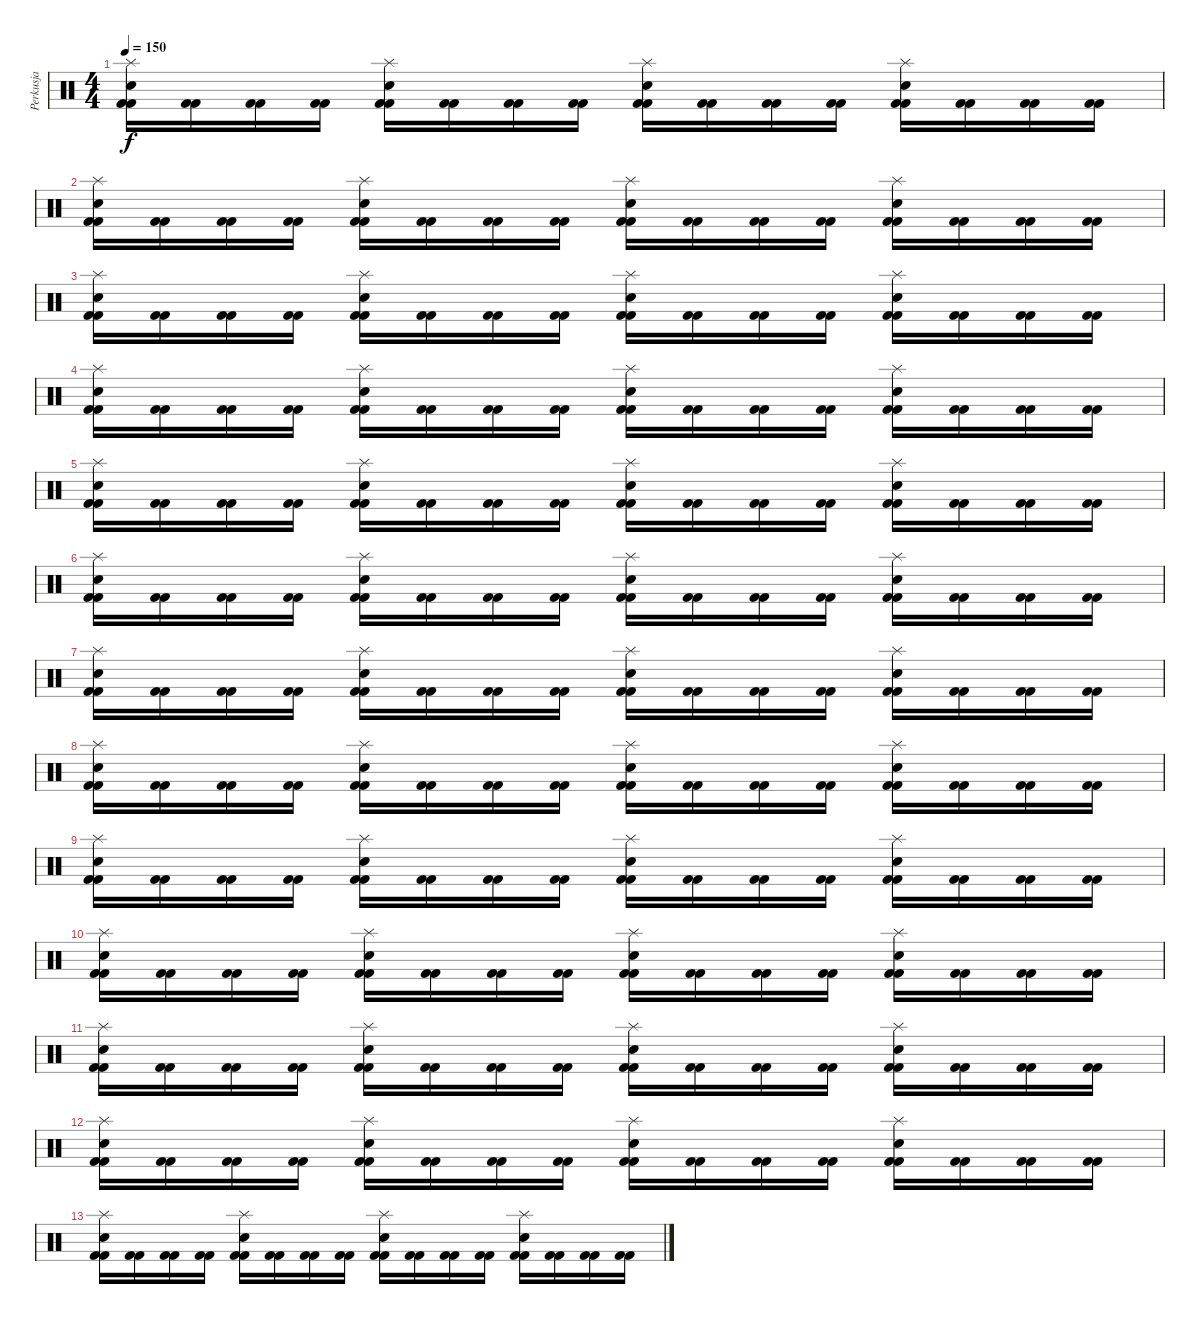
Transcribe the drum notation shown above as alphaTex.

\track ("Perkusja" "Perkusja") {instrument percussion}
\staff {score}
\articulation defaults
\ts (4 4)
\tempo 150
\clef neutral
\ks c
("Splash (hit)" "Snare (hit) 2" "Kick (hit) 2" "Kick (hit) 2").16{dy f} ("Kick (hit) 2" "Kick (hit) 2").16 ("Kick (hit) 2" "Kick (hit) 2").16 ("Kick (hit) 2" "Kick (hit) 2").16 ("Splash (hit)" "Electric Snare (hit)" "Kick (hit) 2" "Kick (hit) 2").16 ("Kick (hit) 2" "Kick (hit) 2").16 ("Kick (hit) 2" "Kick (hit) 2").16 ("Kick (hit) 2" "Kick (hit) 2").16 ("Splash (hit)" "Snare (hit) 2" "Kick (hit) 2" "Kick (hit) 2").16 ("Kick (hit) 2" "Kick (hit) 2").16 ("Kick (hit) 2" "Kick (hit) 2").16 ("Kick (hit) 2" "Kick (hit) 2").16 ("Splash (hit)" "Electric Snare (hit)" "Kick (hit) 2" "Kick (hit) 2").16 ("Kick (hit) 2" "Kick (hit) 2").16 ("Kick (hit) 2" "Kick (hit) 2").16 ("Kick (hit) 2" "Kick (hit) 2").16 |
("Splash (hit)" "Snare (hit) 2" "Kick (hit) 2" "Kick (hit) 2").16 ("Kick (hit) 2" "Kick (hit) 2").16 ("Kick (hit) 2" "Kick (hit) 2").16 ("Kick (hit) 2" "Kick (hit) 2").16 ("Splash (hit)" "Electric Snare (hit)" "Kick (hit) 2" "Kick (hit) 2").16 ("Kick (hit) 2" "Kick (hit) 2").16 ("Kick (hit) 2" "Kick (hit) 2").16 ("Kick (hit) 2" "Kick (hit) 2").16 ("Splash (hit)" "Snare (hit) 2" "Kick (hit) 2" "Kick (hit) 2").16 ("Kick (hit) 2" "Kick (hit) 2").16 ("Kick (hit) 2" "Kick (hit) 2").16 ("Kick (hit) 2" "Kick (hit) 2").16 ("Splash (hit)" "Electric Snare (hit)" "Kick (hit) 2" "Kick (hit) 2").16 ("Kick (hit) 2" "Kick (hit) 2").16 ("Kick (hit) 2" "Kick (hit) 2").16 ("Kick (hit) 2" "Kick (hit) 2").16 |
("Splash (hit)" "Snare (hit) 2" "Kick (hit) 2" "Kick (hit) 2").16 ("Kick (hit) 2" "Kick (hit) 2").16 ("Kick (hit) 2" "Kick (hit) 2").16 ("Kick (hit) 2" "Kick (hit) 2").16 ("Splash (hit)" "Electric Snare (hit)" "Kick (hit) 2" "Kick (hit) 2").16 ("Kick (hit) 2" "Kick (hit) 2").16 ("Kick (hit) 2" "Kick (hit) 2").16 ("Kick (hit) 2" "Kick (hit) 2").16 ("Splash (hit)" "Snare (hit) 2" "Kick (hit) 2" "Kick (hit) 2").16 ("Kick (hit) 2" "Kick (hit) 2").16 ("Kick (hit) 2" "Kick (hit) 2").16 ("Kick (hit) 2" "Kick (hit) 2").16 ("Splash (hit)" "Electric Snare (hit)" "Kick (hit) 2" "Kick (hit) 2").16 ("Kick (hit) 2" "Kick (hit) 2").16 ("Kick (hit) 2" "Kick (hit) 2").16 ("Kick (hit) 2" "Kick (hit) 2").16 |
("Splash (hit)" "Snare (hit) 2" "Kick (hit) 2" "Kick (hit) 2").16 ("Kick (hit) 2" "Kick (hit) 2").16 ("Kick (hit) 2" "Kick (hit) 2").16 ("Kick (hit) 2" "Kick (hit) 2").16 ("Splash (hit)" "Electric Snare (hit)" "Kick (hit) 2" "Kick (hit) 2").16 ("Kick (hit) 2" "Kick (hit) 2").16 ("Kick (hit) 2" "Kick (hit) 2").16 ("Kick (hit) 2" "Kick (hit) 2").16 ("Splash (hit)" "Snare (hit) 2" "Kick (hit) 2" "Kick (hit) 2").16 ("Kick (hit) 2" "Kick (hit) 2").16 ("Kick (hit) 2" "Kick (hit) 2").16 ("Kick (hit) 2" "Kick (hit) 2").16 ("Splash (hit)" "Electric Snare (hit)" "Kick (hit) 2" "Kick (hit) 2").16 ("Kick (hit) 2" "Kick (hit) 2").16 ("Kick (hit) 2" "Kick (hit) 2").16 ("Kick (hit) 2" "Kick (hit) 2").16 |
("Splash (hit)" "Snare (hit) 2" "Kick (hit) 2" "Kick (hit) 2").16 ("Kick (hit) 2" "Kick (hit) 2").16 ("Kick (hit) 2" "Kick (hit) 2").16 ("Kick (hit) 2" "Kick (hit) 2").16 ("Splash (hit)" "Electric Snare (hit)" "Kick (hit) 2" "Kick (hit) 2").16 ("Kick (hit) 2" "Kick (hit) 2").16 ("Kick (hit) 2" "Kick (hit) 2").16 ("Kick (hit) 2" "Kick (hit) 2").16 ("Splash (hit)" "Snare (hit) 2" "Kick (hit) 2" "Kick (hit) 2").16 ("Kick (hit) 2" "Kick (hit) 2").16 ("Kick (hit) 2" "Kick (hit) 2").16 ("Kick (hit) 2" "Kick (hit) 2").16 ("Splash (hit)" "Electric Snare (hit)" "Kick (hit) 2" "Kick (hit) 2").16 ("Kick (hit) 2" "Kick (hit) 2").16 ("Kick (hit) 2" "Kick (hit) 2").16 ("Kick (hit) 2" "Kick (hit) 2").16 |
("Splash (hit)" "Snare (hit) 2" "Kick (hit) 2" "Kick (hit) 2").16 ("Kick (hit) 2" "Kick (hit) 2").16 ("Kick (hit) 2" "Kick (hit) 2").16 ("Kick (hit) 2" "Kick (hit) 2").16 ("Splash (hit)" "Electric Snare (hit)" "Kick (hit) 2" "Kick (hit) 2").16 ("Kick (hit) 2" "Kick (hit) 2").16 ("Kick (hit) 2" "Kick (hit) 2").16 ("Kick (hit) 2" "Kick (hit) 2").16 ("Splash (hit)" "Snare (hit) 2" "Kick (hit) 2" "Kick (hit) 2").16 ("Kick (hit) 2" "Kick (hit) 2").16 ("Kick (hit) 2" "Kick (hit) 2").16 ("Kick (hit) 2" "Kick (hit) 2").16 ("Splash (hit)" "Electric Snare (hit)" "Kick (hit) 2" "Kick (hit) 2").16 ("Kick (hit) 2" "Kick (hit) 2").16 ("Kick (hit) 2" "Kick (hit) 2").16 ("Kick (hit) 2" "Kick (hit) 2").16 |
("Splash (hit)" "Snare (hit) 2" "Kick (hit) 2" "Kick (hit) 2").16 ("Kick (hit) 2" "Kick (hit) 2").16 ("Kick (hit) 2" "Kick (hit) 2").16 ("Kick (hit) 2" "Kick (hit) 2").16 ("Splash (hit)" "Electric Snare (hit)" "Kick (hit) 2" "Kick (hit) 2").16 ("Kick (hit) 2" "Kick (hit) 2").16 ("Kick (hit) 2" "Kick (hit) 2").16 ("Kick (hit) 2" "Kick (hit) 2").16 ("Splash (hit)" "Snare (hit) 2" "Kick (hit) 2" "Kick (hit) 2").16 ("Kick (hit) 2" "Kick (hit) 2").16 ("Kick (hit) 2" "Kick (hit) 2").16 ("Kick (hit) 2" "Kick (hit) 2").16 ("Splash (hit)" "Electric Snare (hit)" "Kick (hit) 2" "Kick (hit) 2").16 ("Kick (hit) 2" "Kick (hit) 2").16 ("Kick (hit) 2" "Kick (hit) 2").16 ("Kick (hit) 2" "Kick (hit) 2").16 |
("Splash (hit)" "Snare (hit) 2" "Kick (hit) 2" "Kick (hit) 2").16 ("Kick (hit) 2" "Kick (hit) 2").16 ("Kick (hit) 2" "Kick (hit) 2").16 ("Kick (hit) 2" "Kick (hit) 2").16 ("Splash (hit)" "Electric Snare (hit)" "Kick (hit) 2" "Kick (hit) 2").16 ("Kick (hit) 2" "Kick (hit) 2").16 ("Kick (hit) 2" "Kick (hit) 2").16 ("Kick (hit) 2" "Kick (hit) 2").16 ("Splash (hit)" "Snare (hit) 2" "Kick (hit) 2" "Kick (hit) 2").16 ("Kick (hit) 2" "Kick (hit) 2").16 ("Kick (hit) 2" "Kick (hit) 2").16 ("Kick (hit) 2" "Kick (hit) 2").16 ("Splash (hit)" "Electric Snare (hit)" "Kick (hit) 2" "Kick (hit) 2").16 ("Kick (hit) 2" "Kick (hit) 2").16 ("Kick (hit) 2" "Kick (hit) 2").16 ("Kick (hit) 2" "Kick (hit) 2").16 |
("Splash (hit)" "Snare (hit) 2" "Kick (hit) 2" "Kick (hit) 2").16 ("Kick (hit) 2" "Kick (hit) 2").16 ("Kick (hit) 2" "Kick (hit) 2").16 ("Kick (hit) 2" "Kick (hit) 2").16 ("Splash (hit)" "Electric Snare (hit)" "Kick (hit) 2" "Kick (hit) 2").16 ("Kick (hit) 2" "Kick (hit) 2").16 ("Kick (hit) 2" "Kick (hit) 2").16 ("Kick (hit) 2" "Kick (hit) 2").16 ("Splash (hit)" "Snare (hit) 2" "Kick (hit) 2" "Kick (hit) 2").16 ("Kick (hit) 2" "Kick (hit) 2").16 ("Kick (hit) 2" "Kick (hit) 2").16 ("Kick (hit) 2" "Kick (hit) 2").16 ("Splash (hit)" "Electric Snare (hit)" "Kick (hit) 2" "Kick (hit) 2").16 ("Kick (hit) 2" "Kick (hit) 2").16 ("Kick (hit) 2" "Kick (hit) 2").16 ("Kick (hit) 2" "Kick (hit) 2").16 |
("Splash (hit)" "Snare (hit) 2" "Kick (hit) 2" "Kick (hit) 2").16 ("Kick (hit) 2" "Kick (hit) 2").16 ("Kick (hit) 2" "Kick (hit) 2").16 ("Kick (hit) 2" "Kick (hit) 2").16 ("Splash (hit)" "Electric Snare (hit)" "Kick (hit) 2" "Kick (hit) 2").16 ("Kick (hit) 2" "Kick (hit) 2").16 ("Kick (hit) 2" "Kick (hit) 2").16 ("Kick (hit) 2" "Kick (hit) 2").16 ("Splash (hit)" "Snare (hit) 2" "Kick (hit) 2" "Kick (hit) 2").16 ("Kick (hit) 2" "Kick (hit) 2").16 ("Kick (hit) 2" "Kick (hit) 2").16 ("Kick (hit) 2" "Kick (hit) 2").16 ("Splash (hit)" "Electric Snare (hit)" "Kick (hit) 2" "Kick (hit) 2").16 ("Kick (hit) 2" "Kick (hit) 2").16 ("Kick (hit) 2" "Kick (hit) 2").16 ("Kick (hit) 2" "Kick (hit) 2").16 |
("Splash (hit)" "Snare (hit) 2" "Kick (hit) 2" "Kick (hit) 2").16 ("Kick (hit) 2" "Kick (hit) 2").16 ("Kick (hit) 2" "Kick (hit) 2").16 ("Kick (hit) 2" "Kick (hit) 2").16 ("Splash (hit)" "Electric Snare (hit)" "Kick (hit) 2" "Kick (hit) 2").16 ("Kick (hit) 2" "Kick (hit) 2").16 ("Kick (hit) 2" "Kick (hit) 2").16 ("Kick (hit) 2" "Kick (hit) 2").16 ("Splash (hit)" "Snare (hit) 2" "Kick (hit) 2" "Kick (hit) 2").16 ("Kick (hit) 2" "Kick (hit) 2").16 ("Kick (hit) 2" "Kick (hit) 2").16 ("Kick (hit) 2" "Kick (hit) 2").16 ("Splash (hit)" "Electric Snare (hit)" "Kick (hit) 2" "Kick (hit) 2").16 ("Kick (hit) 2" "Kick (hit) 2").16 ("Kick (hit) 2" "Kick (hit) 2").16 ("Kick (hit) 2" "Kick (hit) 2").16 |
("Splash (hit)" "Snare (hit) 2" "Kick (hit) 2" "Kick (hit) 2").16 ("Kick (hit) 2" "Kick (hit) 2").16 ("Kick (hit) 2" "Kick (hit) 2").16 ("Kick (hit) 2" "Kick (hit) 2").16 ("Splash (hit)" "Electric Snare (hit)" "Kick (hit) 2" "Kick (hit) 2").16 ("Kick (hit) 2" "Kick (hit) 2").16 ("Kick (hit) 2" "Kick (hit) 2").16 ("Kick (hit) 2" "Kick (hit) 2").16 ("Splash (hit)" "Snare (hit) 2" "Kick (hit) 2" "Kick (hit) 2").16 ("Kick (hit) 2" "Kick (hit) 2").16 ("Kick (hit) 2" "Kick (hit) 2").16 ("Kick (hit) 2" "Kick (hit) 2").16 ("Splash (hit)" "Electric Snare (hit)" "Kick (hit) 2" "Kick (hit) 2").16 ("Kick (hit) 2" "Kick (hit) 2").16 ("Kick (hit) 2" "Kick (hit) 2").16 ("Kick (hit) 2" "Kick (hit) 2").16 |
("Splash (hit)" "Snare (hit) 2" "Kick (hit) 2" "Kick (hit) 2").16 ("Kick (hit) 2" "Kick (hit) 2").16 ("Kick (hit) 2" "Kick (hit) 2").16 ("Kick (hit) 2" "Kick (hit) 2").16 ("Splash (hit)" "Electric Snare (hit)" "Kick (hit) 2" "Kick (hit) 2").16 ("Kick (hit) 2" "Kick (hit) 2").16 ("Kick (hit) 2" "Kick (hit) 2").16 ("Kick (hit) 2" "Kick (hit) 2").16 ("Splash (hit)" "Snare (hit) 2" "Kick (hit) 2" "Kick (hit) 2").16 ("Kick (hit) 2" "Kick (hit) 2").16 ("Kick (hit) 2" "Kick (hit) 2").16 ("Kick (hit) 2" "Kick (hit) 2").16 ("Splash (hit)" "Electric Snare (hit)" "Kick (hit) 2" "Kick (hit) 2").16 ("Kick (hit) 2" "Kick (hit) 2").16 ("Kick (hit) 2" "Kick (hit) 2").16 ("Kick (hit) 2" "Kick (hit) 2").16
